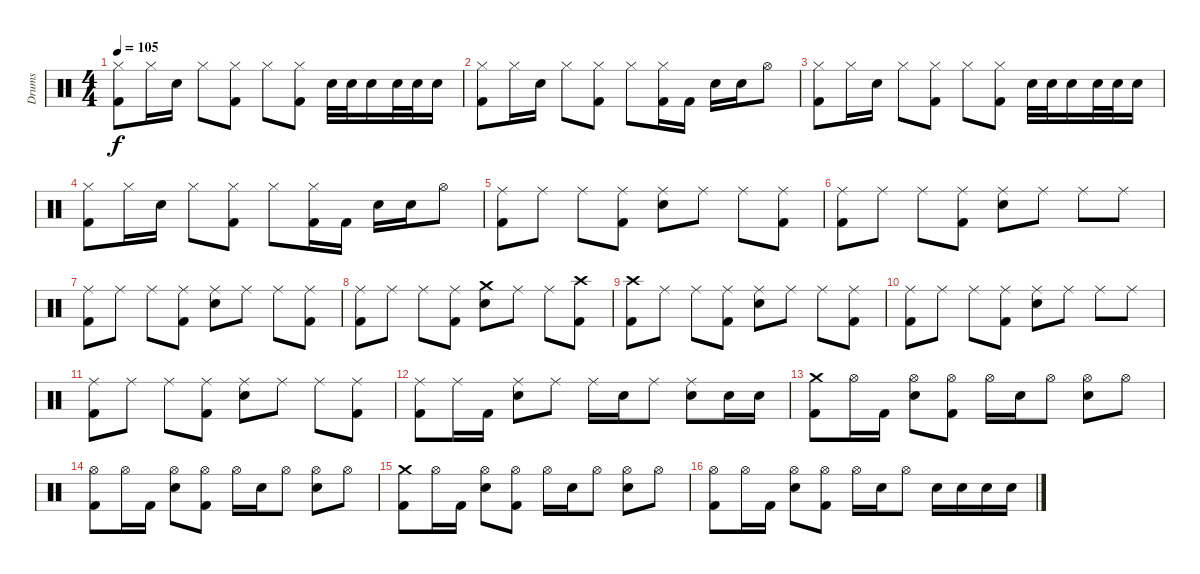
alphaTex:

\track ("Drums" "Drums") {instrument percussion}
\staff {score}
\articulation defaults
\ts (4 4)
\tempo 105
\clef neutral
\ks c
("Hi-Hat (closed)" "Kick (hit) 2").8{dy f} "Hi-Hat (closed)".16 "Electric Snare (hit)".16 "Hi-Hat (closed)".8 ("Hi-Hat (closed)" "Kick (hit) 2").8 "Hi-Hat (closed)".8 ("Hi-Hat (closed)" "Kick (hit) 2").8 "Electric Snare (hit)".32 "Electric Snare (hit)".32 "Electric Snare (hit)".16 "Electric Snare (hit)".32 "Electric Snare (hit)".32 "Electric Snare (hit)".16 |
("Hi-Hat (closed)" "Kick (hit) 2").8 "Hi-Hat (closed)".16 "Electric Snare (hit)".16 "Hi-Hat (closed)".8 ("Hi-Hat (closed)" "Kick (hit) 2").8 "Hi-Hat (closed)".8 ("Hi-Hat (closed)" "Kick (hit) 2").16 "Kick (hit) 2".16 "Electric Snare (hit)".16 "Electric Snare (hit)".16 "Hi-Hat (open)".8 |
("Hi-Hat (closed)" "Kick (hit) 2").8 "Hi-Hat (closed)".16 "Electric Snare (hit)".16 "Hi-Hat (closed)".8 ("Hi-Hat (closed)" "Kick (hit) 2").8 "Hi-Hat (closed)".8 ("Hi-Hat (closed)" "Kick (hit) 2").8 "Electric Snare (hit)".32 "Electric Snare (hit)".32 "Electric Snare (hit)".16 "Electric Snare (hit)".32 "Electric Snare (hit)".32 "Electric Snare (hit)".16 |
("Hi-Hat (closed)" "Kick (hit) 2").8 "Hi-Hat (closed)".16 "Electric Snare (hit)".16 "Hi-Hat (closed)".8 ("Hi-Hat (closed)" "Kick (hit) 2").8 "Hi-Hat (closed)".8 ("Hi-Hat (closed)" "Kick (hit) 2").16 "Kick (hit) 2".16 "Electric Snare (hit)".16 "Electric Snare (hit)".16 "Hi-Hat (open)".8 |
("Ride (middle)" "Kick (hit) 2").8 "Ride (middle)".8 "Ride (middle)".8 ("Ride (middle)" "Kick (hit) 2").8 ("Ride (middle)" "Electric Snare (hit)").8 "Ride (middle)".8 "Ride (middle)".8 ("Ride (middle)" "Kick (hit) 2").8 |
("Ride (middle)" "Kick (hit) 2").8 "Ride (middle)".8 "Ride (middle)".8 ("Ride (middle)" "Kick (hit) 2").8 ("Ride (middle)" "Electric Snare (hit)").8 "Ride (middle)".8 "Ride (middle)".8 "Ride (middle)".8 |
("Ride (middle)" "Kick (hit) 2").8 "Ride (middle)".8 "Ride (middle)".8 ("Ride (middle)" "Kick (hit) 2").8 ("Ride (middle)" "Electric Snare (hit)").8 "Ride (middle)".8 "Ride (middle)".8 ("Ride (middle)" "Kick (hit) 2").8 |
("Ride (middle)" "Kick (hit) 2").8 "Ride (middle)".8 "Ride (middle)".8 ("Ride (middle)" "Kick (hit) 2").8 ("Crash medium (hit)" "Electric Snare (hit)").8 "Ride (middle)".8 "Ride (middle)".8 ("Crash high (hit)" "Kick (hit) 2").8 |
("Crash high (hit)" "Kick (hit) 2").8 "Ride (middle)".8 "Ride (middle)".8 ("Ride (middle)" "Kick (hit) 2").8 ("Ride (middle)" "Electric Snare (hit)").8 "Ride (middle)".8 "Ride (middle)".8 ("Ride (middle)" "Kick (hit) 2").8 |
("Ride (middle)" "Kick (hit) 2").8 "Ride (middle)".8 "Ride (middle)".8 ("Ride (middle)" "Kick (hit) 2").8 ("Ride (middle)" "Electric Snare (hit)").8 "Ride (middle)".8 "Ride (middle)".8 "Ride (middle)".8 |
("Ride (middle)" "Kick (hit) 2").8 "Ride (middle)".8 "Ride (middle)".8 ("Ride (middle)" "Kick (hit) 2").8 ("Ride (middle)" "Electric Snare (hit)").8 "Ride (middle)".8 "Ride (middle)".8 ("Ride (middle)" "Kick (hit) 2").8 |
("Ride (middle)" "Kick (hit) 2").8 "Ride (middle)".16 "Kick (hit) 2".16 ("Ride (middle)" "Electric Snare (hit)").8 "Ride (middle)".8 "Ride (middle)".16 "Electric Snare (hit)".16 "Ride (middle)".8 ("Ride (middle)" "Electric Snare (hit)").8 "Electric Snare (hit)".16 "Electric Snare (hit)".16 |
("Crash medium (hit)" "Kick (hit) 2").8 "Hi-Hat (open)".16 "Kick (hit) 2".16 ("Hi-Hat (open)" "Electric Snare (hit)").8 ("Hi-Hat (open)" "Kick (hit) 2").8 "Hi-Hat (open)".16 "Electric Snare (hit)".16 "Hi-Hat (open)".8 ("Hi-Hat (open)" "Electric Snare (hit)").8 "Hi-Hat (open)".8 |
("Hi-Hat (open)" "Kick (hit) 2").8 "Hi-Hat (open)".16 "Kick (hit) 2".16 ("Hi-Hat (open)" "Electric Snare (hit)").8 ("Hi-Hat (open)" "Kick (hit) 2").8 "Hi-Hat (open)".16 "Electric Snare (hit)".16 "Hi-Hat (open)".8 ("Hi-Hat (open)" "Electric Snare (hit)").8 "Hi-Hat (open)".8 |
("Crash medium (hit)" "Kick (hit) 2").8 "Hi-Hat (open)".16 "Kick (hit) 2".16 ("Hi-Hat (open)" "Electric Snare (hit)").8 ("Hi-Hat (open)" "Kick (hit) 2").8 "Hi-Hat (open)".16 "Electric Snare (hit)".16 "Hi-Hat (open)".8 ("Hi-Hat (open)" "Electric Snare (hit)").8 "Hi-Hat (open)".8 |
("Hi-Hat (open)" "Kick (hit) 2").8 "Hi-Hat (open)".16 "Kick (hit) 2".16 ("Hi-Hat (open)" "Electric Snare (hit)").8 ("Hi-Hat (open)" "Kick (hit) 2").8 "Hi-Hat (open)".16 "Electric Snare (hit)".16 "Hi-Hat (open)".8 "Electric Snare (hit)".16 "Electric Snare (hit)".16 "Electric Snare (hit)".16 "Electric Snare (hit)".16
